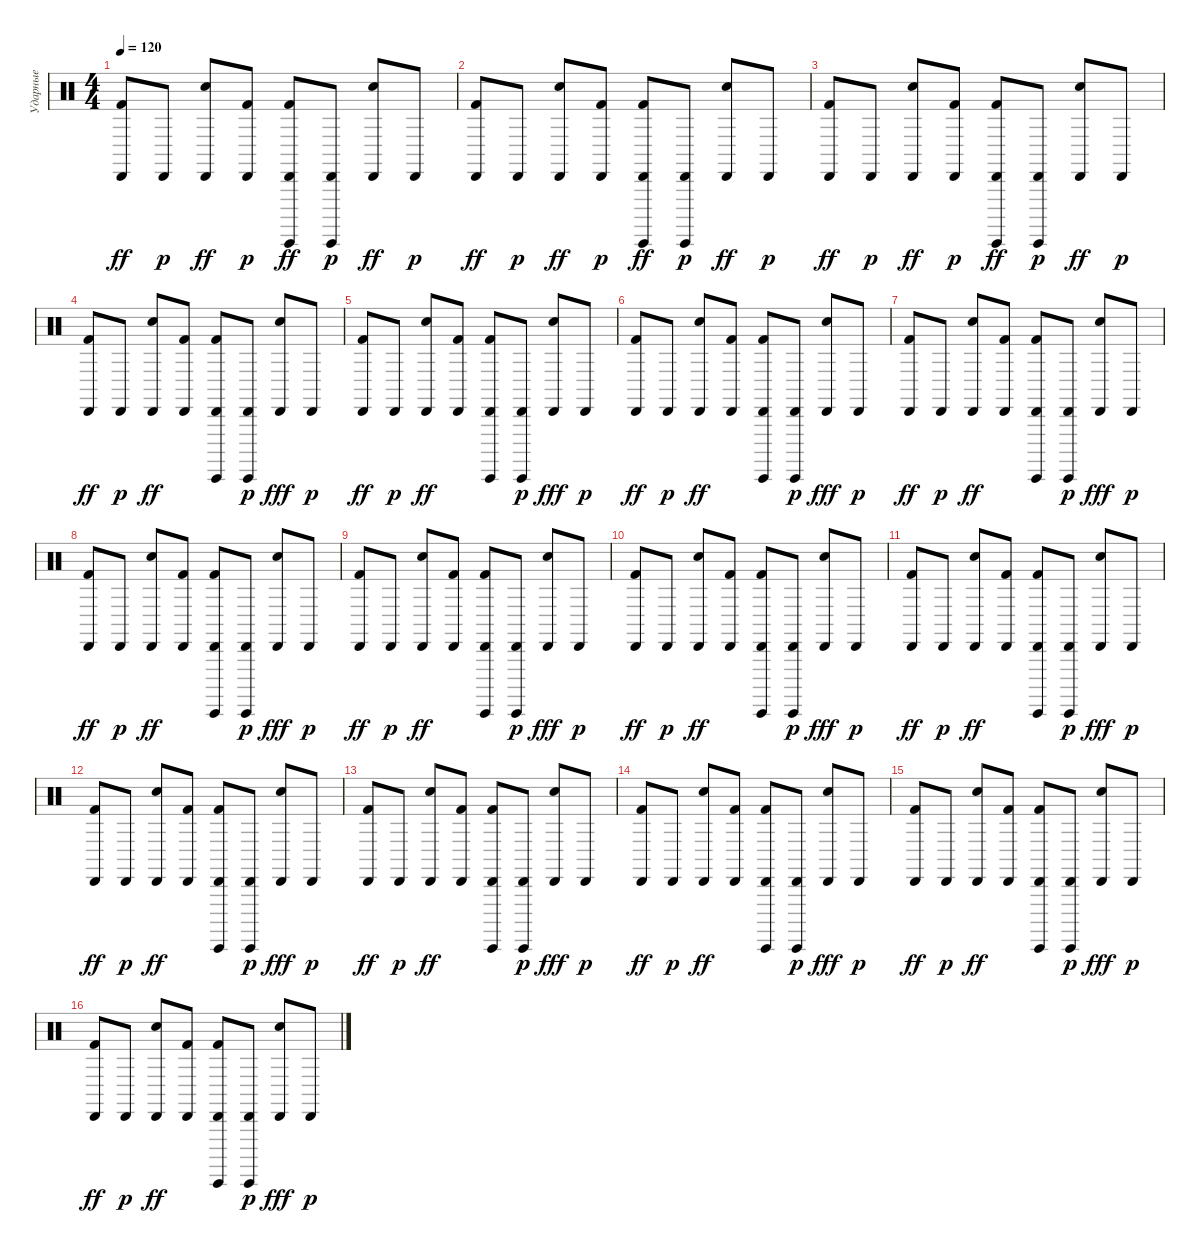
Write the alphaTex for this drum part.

\track ("Ударные" "Ударные") {instrument percussion}
\staff {score}
\articulation defaults
\ts (4 4)
\tempo 120
\clef neutral
\ks c
("Cabasa (hit)" "Kick (hit) 2").8{dy ff} "Cabasa (hit)".8{dy p} ("Cabasa (hit)" "Snare (hit) 2").8{dy ff} ("Cabasa (hit)" "Kick (hit) 2").8{dy p} ("Cabasa (hit)" "Guiro (hit)" "Kick (hit) 2").8{dy ff} ("Cabasa (hit)" "Guiro (hit)").8{dy p} ("Cabasa (hit)" "Snare (hit) 2").8{dy ff} "Cabasa (hit)".8{dy p} |
("Cabasa (hit)" "Kick (hit) 2").8{dy ff} "Cabasa (hit)".8{dy p} ("Cabasa (hit)" "Snare (hit) 2").8{dy ff} ("Cabasa (hit)" "Kick (hit) 2").8{dy p} ("Cabasa (hit)" "Guiro (hit)" "Kick (hit) 2").8{dy ff} ("Cabasa (hit)" "Guiro (hit)").8{dy p} ("Cabasa (hit)" "Snare (hit) 2").8{dy ff} "Cabasa (hit)".8{dy p} |
("Cabasa (hit)" "Kick (hit) 2").8{dy ff} "Cabasa (hit)".8{dy p} ("Cabasa (hit)" "Snare (hit) 2").8{dy ff} ("Cabasa (hit)" "Kick (hit) 2").8{dy p} ("Cabasa (hit)" "Guiro (hit)" "Kick (hit) 2").8{dy ff} ("Cabasa (hit)" "Guiro (hit)").8{dy p} ("Cabasa (hit)" "Snare (hit) 2").8{dy ff} "Cabasa (hit)".8{dy p} |
("Cabasa (hit)" "Kick (hit) 2").8{dy ff} "Cabasa (hit)".8{dy p} ("Cabasa (hit)" "Snare (hit) 2").8{dy ff} ("Cabasa (hit)" "Kick (hit) 2").8 ("Cabasa (hit)" "Guiro (hit)" "Kick (hit) 2").8 ("Cabasa (hit)" "Guiro (hit)").8{dy p} ("Cabasa (hit)" "Snare (hit) 2").8{dy fff} "Cabasa (hit)".8{dy p} |
("Cabasa (hit)" "Kick (hit) 2").8{dy ff} "Cabasa (hit)".8{dy p} ("Cabasa (hit)" "Snare (hit) 2").8{dy ff} ("Cabasa (hit)" "Kick (hit) 2").8 ("Cabasa (hit)" "Guiro (hit)" "Kick (hit) 2").8 ("Cabasa (hit)" "Guiro (hit)").8{dy p} ("Cabasa (hit)" "Snare (hit) 2").8{dy fff} "Cabasa (hit)".8{dy p} |
("Cabasa (hit)" "Kick (hit) 2").8{dy ff} "Cabasa (hit)".8{dy p} ("Cabasa (hit)" "Snare (hit) 2").8{dy ff} ("Cabasa (hit)" "Kick (hit) 2").8 ("Cabasa (hit)" "Guiro (hit)" "Kick (hit) 2").8 ("Cabasa (hit)" "Guiro (hit)").8{dy p} ("Cabasa (hit)" "Snare (hit) 2").8{dy fff} "Cabasa (hit)".8{dy p} |
("Cabasa (hit)" "Kick (hit) 2").8{dy ff} "Cabasa (hit)".8{dy p} ("Cabasa (hit)" "Snare (hit) 2").8{dy ff} ("Cabasa (hit)" "Kick (hit) 2").8 ("Cabasa (hit)" "Guiro (hit)" "Kick (hit) 2").8 ("Cabasa (hit)" "Guiro (hit)").8{dy p} ("Cabasa (hit)" "Snare (hit) 2").8{dy fff} "Cabasa (hit)".8{dy p} |
("Cabasa (hit)" "Kick (hit) 2").8{dy ff} "Cabasa (hit)".8{dy p} ("Cabasa (hit)" "Snare (hit) 2").8{dy ff} ("Cabasa (hit)" "Kick (hit) 2").8 ("Cabasa (hit)" "Guiro (hit)" "Kick (hit) 2").8 ("Cabasa (hit)" "Guiro (hit)").8{dy p} ("Cabasa (hit)" "Snare (hit) 2").8{dy fff} "Cabasa (hit)".8{dy p} |
("Cabasa (hit)" "Kick (hit) 2").8{dy ff} "Cabasa (hit)".8{dy p} ("Cabasa (hit)" "Snare (hit) 2").8{dy ff} ("Cabasa (hit)" "Kick (hit) 2").8 ("Cabasa (hit)" "Guiro (hit)" "Kick (hit) 2").8 ("Cabasa (hit)" "Guiro (hit)").8{dy p} ("Cabasa (hit)" "Snare (hit) 2").8{dy fff} "Cabasa (hit)".8{dy p} |
("Cabasa (hit)" "Kick (hit) 2").8{dy ff} "Cabasa (hit)".8{dy p} ("Cabasa (hit)" "Snare (hit) 2").8{dy ff} ("Cabasa (hit)" "Kick (hit) 2").8 ("Cabasa (hit)" "Guiro (hit)" "Kick (hit) 2").8 ("Cabasa (hit)" "Guiro (hit)").8{dy p} ("Cabasa (hit)" "Snare (hit) 2").8{dy fff} "Cabasa (hit)".8{dy p} |
("Cabasa (hit)" "Kick (hit) 2").8{dy ff} "Cabasa (hit)".8{dy p} ("Cabasa (hit)" "Snare (hit) 2").8{dy ff} ("Cabasa (hit)" "Kick (hit) 2").8 ("Cabasa (hit)" "Guiro (hit)" "Kick (hit) 2").8 ("Cabasa (hit)" "Guiro (hit)").8{dy p} ("Cabasa (hit)" "Snare (hit) 2").8{dy fff} "Cabasa (hit)".8{dy p} |
("Cabasa (hit)" "Kick (hit) 2").8{dy ff} "Cabasa (hit)".8{dy p} ("Cabasa (hit)" "Snare (hit) 2").8{dy ff} ("Cabasa (hit)" "Kick (hit) 2").8 ("Cabasa (hit)" "Guiro (hit)" "Kick (hit) 2").8 ("Cabasa (hit)" "Guiro (hit)").8{dy p} ("Cabasa (hit)" "Snare (hit) 2").8{dy fff} "Cabasa (hit)".8{dy p} |
("Cabasa (hit)" "Kick (hit) 2").8{dy ff} "Cabasa (hit)".8{dy p} ("Cabasa (hit)" "Snare (hit) 2").8{dy ff} ("Cabasa (hit)" "Kick (hit) 2").8 ("Cabasa (hit)" "Guiro (hit)" "Kick (hit) 2").8 ("Cabasa (hit)" "Guiro (hit)").8{dy p} ("Cabasa (hit)" "Snare (hit) 2").8{dy fff} "Cabasa (hit)".8{dy p} |
("Cabasa (hit)" "Kick (hit) 2").8{dy ff} "Cabasa (hit)".8{dy p} ("Cabasa (hit)" "Snare (hit) 2").8{dy ff} ("Cabasa (hit)" "Kick (hit) 2").8 ("Cabasa (hit)" "Guiro (hit)" "Kick (hit) 2").8 ("Cabasa (hit)" "Guiro (hit)").8{dy p} ("Cabasa (hit)" "Snare (hit) 2").8{dy fff} "Cabasa (hit)".8{dy p} |
("Cabasa (hit)" "Kick (hit) 2").8{dy ff} "Cabasa (hit)".8{dy p} ("Cabasa (hit)" "Snare (hit) 2").8{dy ff} ("Cabasa (hit)" "Kick (hit) 2").8 ("Cabasa (hit)" "Guiro (hit)" "Kick (hit) 2").8 ("Cabasa (hit)" "Guiro (hit)").8{dy p} ("Cabasa (hit)" "Snare (hit) 2").8{dy fff} "Cabasa (hit)".8{dy p} |
("Cabasa (hit)" "Kick (hit) 2").8{dy ff} "Cabasa (hit)".8{dy p} ("Cabasa (hit)" "Snare (hit) 2").8{dy ff} ("Cabasa (hit)" "Kick (hit) 2").8 ("Cabasa (hit)" "Guiro (hit)" "Kick (hit) 2").8 ("Cabasa (hit)" "Guiro (hit)").8{dy p} ("Cabasa (hit)" "Snare (hit) 2").8{dy fff} "Cabasa (hit)".8{dy p}
